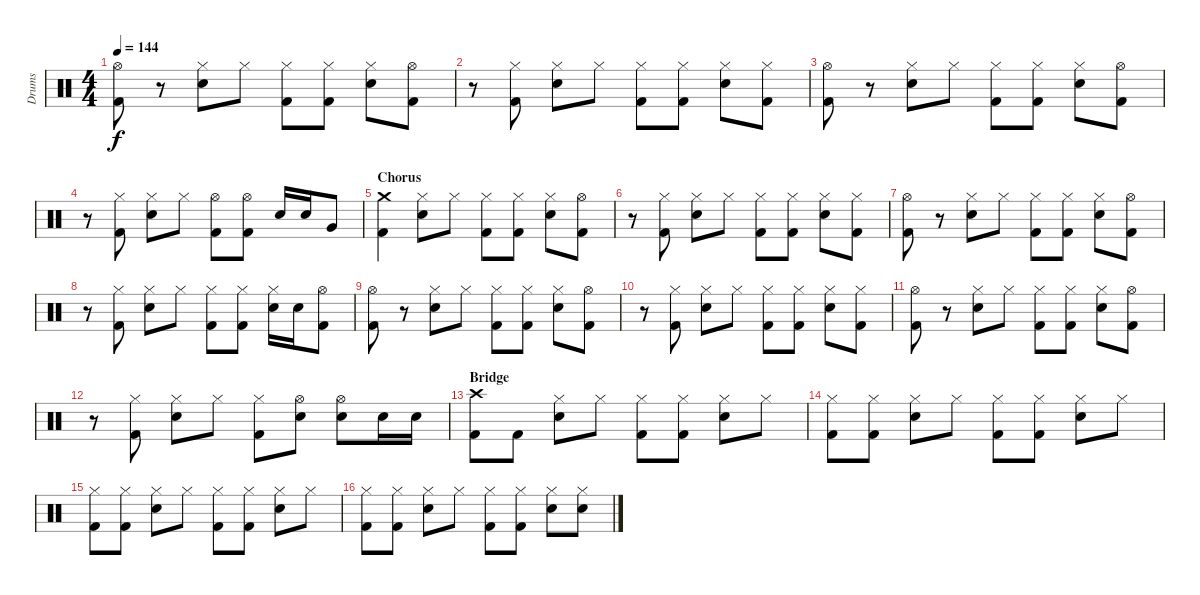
\track ("Drums" "Drums") {instrument percussion}
\staff {score}
\articulation defaults
\ts (4 4)
\tempo 144
\clef neutral
\ks c
("Hi-Hat (open)" "Kick (hit) 2").8{dy f} r.8 ("Hi-Hat (closed)" "Snare (hit) 2").8 "Hi-Hat (closed)".8 ("Hi-Hat (closed)" "Kick (hit) 2").8 ("Hi-Hat (closed)" "Kick (hit) 2").8 ("Hi-Hat (closed)" "Snare (hit) 2").8 ("Hi-Hat (open)" "Kick (hit) 2").8 |
r.8 ("Hi-Hat (closed)" "Kick (hit) 2").8 ("Hi-Hat (closed)" "Snare (hit) 2").8 "Hi-Hat (closed)".8 ("Hi-Hat (closed)" "Kick (hit) 2").8 ("Hi-Hat (closed)" "Kick (hit) 2").8 ("Hi-Hat (closed)" "Snare (hit) 2").8 ("Hi-Hat (closed)" "Kick (hit) 2").8 |
("Hi-Hat (open)" "Kick (hit) 2").8 r.8 ("Hi-Hat (closed)" "Snare (hit) 2").8 "Hi-Hat (closed)".8 ("Hi-Hat (closed)" "Kick (hit) 2").8 ("Hi-Hat (closed)" "Kick (hit) 2").8 ("Hi-Hat (closed)" "Snare (hit) 2").8 ("Hi-Hat (open)" "Kick (hit) 2").8 |
r.8 ("Hi-Hat (closed)" "Kick (hit) 2").8 ("Hi-Hat (closed)" "Snare (hit) 2").8 "Hi-Hat (closed)".8 ("Hi-Hat (open)" "Kick (hit) 2").8 ("Hi-Hat (open)" "Kick (hit) 2").8 "Snare (hit) 2".16 "Snare (hit) 2".16 "Very Low Tom (hit)".8 |
\section ("" "Chorus")
("Crash medium (hit)" "Kick (hit) 2").4 ("Hi-Hat (closed)" "Snare (hit) 2").8 "Hi-Hat (closed)".8 ("Hi-Hat (closed)" "Kick (hit) 2").8 ("Hi-Hat (closed)" "Kick (hit) 2").8 ("Hi-Hat (closed)" "Snare (hit) 2").8 ("Hi-Hat (open)" "Kick (hit) 2").8 |
r.8 ("Hi-Hat (closed)" "Kick (hit) 2").8 ("Hi-Hat (closed)" "Snare (hit) 2").8 "Hi-Hat (closed)".8 ("Hi-Hat (closed)" "Kick (hit) 2").8 ("Hi-Hat (closed)" "Kick (hit) 2").8 ("Hi-Hat (closed)" "Snare (hit) 2").8 ("Hi-Hat (closed)" "Kick (hit) 2").8 |
("Hi-Hat (open)" "Kick (hit) 2").8 r.8 ("Hi-Hat (closed)" "Snare (hit) 2").8 "Hi-Hat (closed)".8 ("Hi-Hat (closed)" "Kick (hit) 2").8 ("Hi-Hat (closed)" "Kick (hit) 2").8 ("Hi-Hat (closed)" "Snare (hit) 2").8 ("Hi-Hat (open)" "Kick (hit) 2").8 |
r.8 ("Hi-Hat (closed)" "Kick (hit) 2").8 ("Hi-Hat (closed)" "Snare (hit) 2").8 "Hi-Hat (closed)".8 ("Hi-Hat (closed)" "Kick (hit) 2").8 ("Hi-Hat (closed)" "Kick (hit) 2").8 ("Hi-Hat (closed)" "Snare (hit) 2").16 "Snare (hit) 2".16 ("Hi-Hat (open)" "Kick (hit) 2").8 |
("Hi-Hat (open)" "Kick (hit) 2").8 r.8 ("Hi-Hat (closed)" "Snare (hit) 2").8 "Hi-Hat (closed)".8 ("Hi-Hat (closed)" "Kick (hit) 2").8 ("Hi-Hat (closed)" "Kick (hit) 2").8 ("Hi-Hat (closed)" "Snare (hit) 2").8 ("Hi-Hat (open)" "Kick (hit) 2").8 |
r.8 ("Hi-Hat (closed)" "Kick (hit) 2").8 ("Hi-Hat (closed)" "Snare (hit) 2").8 "Hi-Hat (closed)".8 ("Hi-Hat (closed)" "Kick (hit) 2").8 ("Hi-Hat (closed)" "Kick (hit) 2").8 ("Hi-Hat (closed)" "Snare (hit) 2").8 ("Hi-Hat (closed)" "Kick (hit) 2").8 |
("Hi-Hat (open)" "Kick (hit) 2").8 r.8 ("Hi-Hat (closed)" "Snare (hit) 2").8 "Hi-Hat (closed)".8 ("Hi-Hat (closed)" "Kick (hit) 2").8 ("Hi-Hat (closed)" "Kick (hit) 2").8 ("Hi-Hat (closed)" "Snare (hit) 2").8 ("Hi-Hat (open)" "Kick (hit) 2").8 |
r.8 ("Hi-Hat (closed)" "Kick (hit) 2").8 ("Hi-Hat (closed)" "Snare (hit) 2").8 "Hi-Hat (closed)".8 ("Hi-Hat (closed)" "Kick (hit) 2").8 ("Hi-Hat (open)" "Snare (hit) 2").8 ("Hi-Hat (open)" "Snare (hit) 2").8 "Snare (hit) 2".16 "Snare (hit) 2".16 |
\section ("" "Bridge")
("Crash high (hit)" "Kick (hit) 2").8 "Kick (hit) 2".8 ("Hi-Hat (closed)" "Snare (hit) 2").8 "Hi-Hat (closed)".8 ("Hi-Hat (closed)" "Kick (hit) 2").8 ("Hi-Hat (closed)" "Kick (hit) 2").8 ("Hi-Hat (closed)" "Snare (hit) 2").8 "Hi-Hat (closed)".8 |
("Hi-Hat (closed)" "Kick (hit) 2").8 ("Hi-Hat (closed)" "Kick (hit) 2").8 ("Hi-Hat (closed)" "Snare (hit) 2").8 "Hi-Hat (closed)".8 ("Hi-Hat (closed)" "Kick (hit) 2").8 ("Hi-Hat (closed)" "Kick (hit) 2").8 ("Hi-Hat (closed)" "Snare (hit) 2").8 "Hi-Hat (closed)".8 |
("Hi-Hat (closed)" "Kick (hit) 2").8 ("Hi-Hat (closed)" "Kick (hit) 2").8 ("Hi-Hat (closed)" "Snare (hit) 2").8 "Hi-Hat (closed)".8 ("Hi-Hat (closed)" "Kick (hit) 2").8 ("Hi-Hat (closed)" "Kick (hit) 2").8 ("Hi-Hat (closed)" "Snare (hit) 2").8 "Hi-Hat (closed)".8 |
("Hi-Hat (closed)" "Kick (hit) 2").8 ("Hi-Hat (closed)" "Kick (hit) 2").8 ("Hi-Hat (closed)" "Snare (hit) 2").8 "Hi-Hat (closed)".8 ("Hi-Hat (closed)" "Kick (hit) 2").8 ("Hi-Hat (closed)" "Kick (hit) 2").8 ("Hi-Hat (closed)" "Snare (hit) 2").8 ("Hi-Hat (closed)" "Snare (hit) 2").8
